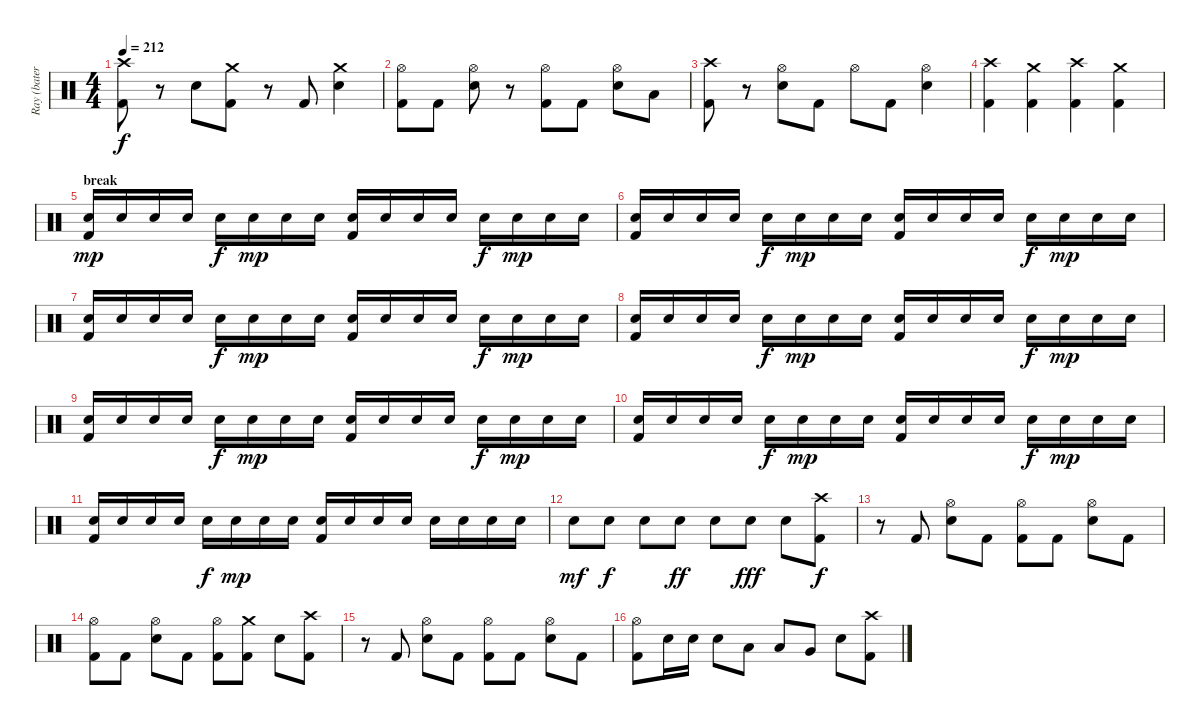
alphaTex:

\track ("Ray (batería)" "Ray (bater") {instrument percussion}
\staff {score}
\articulation defaults
\ts (4 4)
\tempo 212
\clef neutral
\ks c
("Crash high (hit)" "Kick (hit) 2").8{dy f} r.8 "Snare (hit) 2".8 ("Crash medium (hit)" "Kick (hit) 2").8 r.8 "Kick (hit) 2".8 ("Crash medium (hit)" "Snare (hit) 2").4 |
("Hi-Hat (open)" "Kick (hit) 2").8 "Kick (hit) 2".8 ("Hi-Hat (open)" "Snare (hit) 2").8 r.8 ("Hi-Hat (open)" "Kick (hit) 2").8 "Kick (hit) 2".8 ("Hi-Hat (open)" "Snare (hit) 2").8 "Low Tom (hit)".8 |
("Crash high (hit)" "Kick (hit) 2").8 r.8 ("Hi-Hat (open)" "Snare (hit) 2").8 "Kick (hit) 2".8 "Hi-Hat (open)".8 "Kick (hit) 2".8 ("Hi-Hat (open)" "Snare (hit) 2").4 |
("Crash high (hit)" "Kick (hit) 2").4 ("Crash medium (hit)" "Kick (hit) 2").4 ("Crash high (hit)" "Kick (hit) 2").4 ("Crash medium (hit)" "Kick (hit) 2").4 |
\section ("" "break")
("Snare (hit) 2" "Kick (hit) 2").16{dy mp} "Snare (hit) 2".16 "Snare (hit) 2".16 "Snare (hit) 2".16 "Snare (hit) 2".16{dy f} "Snare (hit) 2".16{dy mp} "Snare (hit) 2".16 "Snare (hit) 2".16 ("Snare (hit) 2" "Kick (hit) 2").16 "Snare (hit) 2".16 "Snare (hit) 2".16 "Snare (hit) 2".16 "Snare (hit) 2".16{dy f} "Snare (hit) 2".16{dy mp} "Snare (hit) 2".16 "Snare (hit) 2".16 |
("Snare (hit) 2" "Kick (hit) 2").16 "Snare (hit) 2".16 "Snare (hit) 2".16 "Snare (hit) 2".16 "Snare (hit) 2".16{dy f} "Snare (hit) 2".16{dy mp} "Snare (hit) 2".16 "Snare (hit) 2".16 ("Snare (hit) 2" "Kick (hit) 2").16 "Snare (hit) 2".16 "Snare (hit) 2".16 "Snare (hit) 2".16 "Snare (hit) 2".16{dy f} "Snare (hit) 2".16{dy mp} "Snare (hit) 2".16 "Snare (hit) 2".16 |
("Snare (hit) 2" "Kick (hit) 2").16 "Snare (hit) 2".16 "Snare (hit) 2".16 "Snare (hit) 2".16 "Snare (hit) 2".16{dy f} "Snare (hit) 2".16{dy mp} "Snare (hit) 2".16 "Snare (hit) 2".16 ("Snare (hit) 2" "Kick (hit) 2").16 "Snare (hit) 2".16 "Snare (hit) 2".16 "Snare (hit) 2".16 "Snare (hit) 2".16{dy f} "Snare (hit) 2".16{dy mp} "Snare (hit) 2".16 "Snare (hit) 2".16 |
("Snare (hit) 2" "Kick (hit) 2").16 "Snare (hit) 2".16 "Snare (hit) 2".16 "Snare (hit) 2".16 "Snare (hit) 2".16{dy f} "Snare (hit) 2".16{dy mp} "Snare (hit) 2".16 "Snare (hit) 2".16 ("Snare (hit) 2" "Kick (hit) 2").16 "Snare (hit) 2".16 "Snare (hit) 2".16 "Snare (hit) 2".16 "Snare (hit) 2".16{dy f} "Snare (hit) 2".16{dy mp} "Snare (hit) 2".16 "Snare (hit) 2".16 |
("Snare (hit) 2" "Kick (hit) 2").16 "Snare (hit) 2".16 "Snare (hit) 2".16 "Snare (hit) 2".16 "Snare (hit) 2".16{dy f} "Snare (hit) 2".16{dy mp} "Snare (hit) 2".16 "Snare (hit) 2".16 ("Snare (hit) 2" "Kick (hit) 2").16 "Snare (hit) 2".16 "Snare (hit) 2".16 "Snare (hit) 2".16 "Snare (hit) 2".16{dy f} "Snare (hit) 2".16{dy mp} "Snare (hit) 2".16 "Snare (hit) 2".16 |
("Snare (hit) 2" "Kick (hit) 2").16 "Snare (hit) 2".16 "Snare (hit) 2".16 "Snare (hit) 2".16 "Snare (hit) 2".16{dy f} "Snare (hit) 2".16{dy mp} "Snare (hit) 2".16 "Snare (hit) 2".16 ("Snare (hit) 2" "Kick (hit) 2").16 "Snare (hit) 2".16 "Snare (hit) 2".16 "Snare (hit) 2".16 "Snare (hit) 2".16{dy f} "Snare (hit) 2".16{dy mp} "Snare (hit) 2".16 "Snare (hit) 2".16 |
("Snare (hit) 2" "Kick (hit) 2").16 "Snare (hit) 2".16 "Snare (hit) 2".16 "Snare (hit) 2".16 "Snare (hit) 2".16{dy f} "Snare (hit) 2".16{dy mp} "Snare (hit) 2".16 "Snare (hit) 2".16 ("Snare (hit) 2" "Kick (hit) 2").16 "Snare (hit) 2".16 "Snare (hit) 2".16 "Snare (hit) 2".16 "Snare (hit) 2".16 "Snare (hit) 2".16 "Snare (hit) 2".16 "Snare (hit) 2".16 |
"Snare (hit) 2".8{dy mf} "Snare (hit) 2".8{dy f} "Snare (hit) 2".8 "Snare (hit) 2".8{dy ff} "Snare (hit) 2".8 "Snare (hit) 2".8{dy fff} "Snare (hit) 2".8 ("Crash high (hit)" "Kick (hit) 2").8{dy f} |
r.8 "Kick (hit) 2".8 ("Hi-Hat (open)" "Snare (hit) 2").8 "Kick (hit) 2".8 ("Hi-Hat (open)" "Kick (hit) 2").8 "Kick (hit) 2".8 ("Hi-Hat (open)" "Snare (hit) 2").8 "Kick (hit) 2".8 |
("Hi-Hat (open)" "Kick (hit) 2").8 "Kick (hit) 2".8 ("Hi-Hat (open)" "Snare (hit) 2").8 "Kick (hit) 2".8 ("Hi-Hat (open)" "Kick (hit) 2").8 ("Crash medium (hit)" "Kick (hit) 2").8 "Snare (hit) 2".8 ("Crash high (hit)" "Kick (hit) 2").8 |
r.8 "Kick (hit) 2".8 ("Hi-Hat (open)" "Snare (hit) 2").8 "Kick (hit) 2".8 ("Hi-Hat (open)" "Kick (hit) 2").8 "Kick (hit) 2".8 ("Hi-Hat (open)" "Snare (hit) 2").8 "Kick (hit) 2".8 |
("Hi-Hat (open)" "Kick (hit) 2").8 "Snare (hit) 2".16 "Snare (hit) 2".16 "Snare (hit) 2".8 "Low Tom (hit)".8 "Low Tom (hit)".8 "Very Low Tom (hit)".8 "Snare (hit) 2".8 ("Crash high (hit)" "Kick (hit) 2").8
